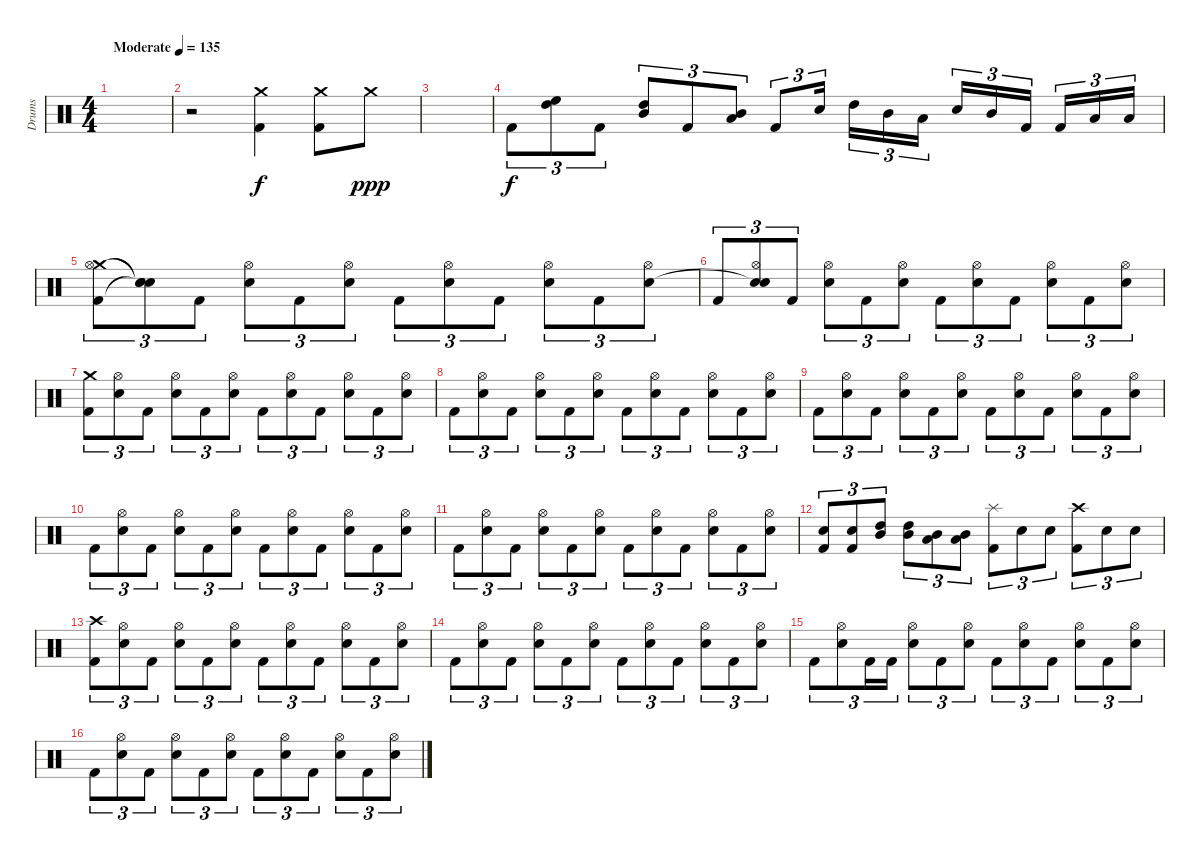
\track ("Drums" "Drums") {instrument percussion}
\staff {score}
\articulation defaults
\ts (4 4)
\tempo (135 "Moderate")
\clef neutral
\ks c
|
r.2 ("Crash medium (hit)" "Kick (hit) 2").4 ("Crash medium (hit)" "Kick (hit) 2").8 "Crash medium (hit)".8{dy ppp volume 0} |
|
"Kick (hit) 2".8{tu (3 2) dy f volume 15} ("High Floor Tom (hit)" "High Tom (hit)").8{tu (3 2)} "Kick (hit) 2".8{tu (3 2)} ("High Tom (hit)" "Mid Tom (hit)").8{tu (3 2)} "Kick (hit) 2".8{tu (3 2)} ("Mid Tom (hit)" "Low Tom (hit)").8{tu (3 2)} "Kick (hit) 2".8{tu (3 2)} "Snare (hit) 2".16{tu (3 2) beam splitsecondary} "High Tom (hit)".16{tu (3 2)} "Mid Tom (hit)".16{tu (3 2)} "Low Tom (hit)".16{tu (3 2)} "Snare (hit) 2".16{tu (3 2)} "Mid Tom (hit)".16{tu (3 2)} "Kick (hit) 2".16{tu (3 2) beam splitsecondary} "Kick (hit) 2".16{tu (3 2)} "Low Tom (hit)".16{tu (3 2)} "Low Tom (hit)".16{tu (3 2)} |
("Crash medium (hit)" "Hi-Hat (open)" "Kick (hit) 2").8{tu (3 2)} ("Snare (hit)"{t} "Snare (hit)"{t} "Snare (hit)"{t}).8{tu (3 2)} "Kick (hit) 2".8{tu (3 2)} ("Hi-Hat (open)" "Electric Snare (hit)").8{tu (3 2)} "Kick (hit) 2".8{tu (3 2)} ("Hi-Hat (open)" "Electric Snare (hit)").8{tu (3 2)} "Kick (hit) 2".8{tu (3 2)} ("Hi-Hat (open)" "Electric Snare (hit)").8{tu (3 2)} "Kick (hit) 2".8{tu (3 2)} ("Hi-Hat (open)" "Electric Snare (hit)").8{tu (3 2)} "Kick (hit) 2".8{tu (3 2)} ("Hi-Hat (open)" "Electric Snare (hit)").8{tu (3 2)} |
"Kick (hit) 2".8{tu (3 2)} ("Hi-Hat (open)" "Snare (hit)"{t} "Electric Snare (hit)").8{tu (3 2)} "Kick (hit) 2".8{tu (3 2)} ("Hi-Hat (open)" "Electric Snare (hit)").8{tu (3 2)} "Kick (hit) 2".8{tu (3 2)} ("Hi-Hat (open)" "Electric Snare (hit)").8{tu (3 2)} "Kick (hit) 2".8{tu (3 2)} ("Hi-Hat (open)" "Electric Snare (hit)").8{tu (3 2)} "Kick (hit) 2".8{tu (3 2)} ("Hi-Hat (open)" "Electric Snare (hit)").8{tu (3 2)} "Kick (hit) 2".8{tu (3 2)} ("Hi-Hat (open)" "Electric Snare (hit)").8{tu (3 2)} |
("Crash medium (hit)" "Kick (hit) 2").8{tu (3 2)} ("Hi-Hat (open)" "Electric Snare (hit)").8{tu (3 2)} "Kick (hit) 2".8{tu (3 2)} ("Hi-Hat (open)" "Electric Snare (hit)").8{tu (3 2)} "Kick (hit) 2".8{tu (3 2)} ("Hi-Hat (open)" "Electric Snare (hit)").8{tu (3 2)} "Kick (hit) 2".8{tu (3 2)} ("Hi-Hat (open)" "Electric Snare (hit)").8{tu (3 2)} "Kick (hit) 2".8{tu (3 2)} ("Hi-Hat (open)" "Electric Snare (hit)").8{tu (3 2)} "Kick (hit) 2".8{tu (3 2)} ("Hi-Hat (open)" "Electric Snare (hit)").8{tu (3 2)} |
"Kick (hit) 2".8{tu (3 2)} ("Hi-Hat (open)" "Electric Snare (hit)").8{tu (3 2)} "Kick (hit) 2".8{tu (3 2)} ("Hi-Hat (open)" "Electric Snare (hit)").8{tu (3 2)} "Kick (hit) 2".8{tu (3 2)} ("Hi-Hat (open)" "Electric Snare (hit)").8{tu (3 2)} "Kick (hit) 2".8{tu (3 2)} ("Hi-Hat (open)" "Electric Snare (hit)").8{tu (3 2)} "Kick (hit) 2".8{tu (3 2)} ("Hi-Hat (open)" "Electric Snare (hit)").8{tu (3 2)} "Kick (hit) 2".8{tu (3 2)} ("Hi-Hat (open)" "Electric Snare (hit)").8{tu (3 2)} |
"Kick (hit) 2".8{tu (3 2)} ("Hi-Hat (open)" "Electric Snare (hit)").8{tu (3 2)} "Kick (hit) 2".8{tu (3 2)} ("Hi-Hat (open)" "Electric Snare (hit)").8{tu (3 2)} "Kick (hit) 2".8{tu (3 2)} ("Hi-Hat (open)" "Electric Snare (hit)").8{tu (3 2)} "Kick (hit) 2".8{tu (3 2)} ("Hi-Hat (open)" "Electric Snare (hit)").8{tu (3 2)} "Kick (hit) 2".8{tu (3 2)} ("Hi-Hat (open)" "Electric Snare (hit)").8{tu (3 2)} "Kick (hit) 2".8{tu (3 2)} ("Hi-Hat (open)" "Electric Snare (hit)").8{tu (3 2)} |
"Kick (hit) 2".8{tu (3 2)} ("Hi-Hat (open)" "Electric Snare (hit)").8{tu (3 2)} "Kick (hit) 2".8{tu (3 2)} ("Hi-Hat (open)" "Electric Snare (hit)").8{tu (3 2)} "Kick (hit) 2".8{tu (3 2)} ("Hi-Hat (open)" "Electric Snare (hit)").8{tu (3 2)} "Kick (hit) 2".8{tu (3 2)} ("Hi-Hat (open)" "Electric Snare (hit)").8{tu (3 2)} "Kick (hit) 2".8{tu (3 2)} ("Hi-Hat (open)" "Electric Snare (hit)").8{tu (3 2)} "Kick (hit) 2".8{tu (3 2)} ("Hi-Hat (open)" "Electric Snare (hit)").8{tu (3 2)} |
"Kick (hit) 2".8{tu (3 2)} ("Hi-Hat (open)" "Electric Snare (hit)").8{tu (3 2)} "Kick (hit) 2".8{tu (3 2)} ("Hi-Hat (open)" "Electric Snare (hit)").8{tu (3 2)} "Kick (hit) 2".8{tu (3 2)} ("Hi-Hat (open)" "Electric Snare (hit)").8{tu (3 2)} "Kick (hit) 2".8{tu (3 2)} ("Hi-Hat (open)" "Electric Snare (hit)").8{tu (3 2)} "Kick (hit) 2".8{tu (3 2)} ("Hi-Hat (open)" "Electric Snare (hit)").8{tu (3 2)} "Kick (hit) 2".8{tu (3 2)} ("Hi-Hat (open)" "Electric Snare (hit)").8{tu (3 2)} |
("Snare (hit) 2" "Kick (hit) 2").8{tu (3 2)} ("Snare (hit) 2" "Kick (hit) 2").8{tu (3 2)} ("Mid Tom (hit)" "High Tom (hit)").8{tu (3 2)} ("Mid Tom (hit)" "High Tom (hit)").8{tu (3 2)} ("Low Tom (hit)" "Mid Tom (hit)").8{tu (3 2)} ("Low Tom (hit)" "Mid Tom (hit)").8{tu (3 2)} ("Splash (hit)" "Kick (hit) 2").8{tu (3 2)} "Snare (hit) 2".8{tu (3 2)} "Snare (hit) 2".8{tu (3 2)} ("Crash high (hit)" "Kick (hit) 2").8{tu (3 2)} "Snare (hit) 2".8{tu (3 2)} "Snare (hit) 2".8{tu (3 2)} |
("Crash high (hit)" "Kick (hit) 2").8{tu (3 2)} ("Hi-Hat (open)" "Electric Snare (hit)").8{tu (3 2)} "Kick (hit) 2".8{tu (3 2)} ("Hi-Hat (open)" "Electric Snare (hit)").8{tu (3 2)} "Kick (hit) 2".8{tu (3 2)} ("Hi-Hat (open)" "Electric Snare (hit)").8{tu (3 2)} "Kick (hit) 2".8{tu (3 2)} ("Hi-Hat (open)" "Electric Snare (hit)").8{tu (3 2)} "Kick (hit) 2".8{tu (3 2)} ("Hi-Hat (open)" "Electric Snare (hit)").8{tu (3 2)} "Kick (hit) 2".8{tu (3 2)} ("Hi-Hat (open)" "Electric Snare (hit)").8{tu (3 2)} |
"Kick (hit) 2".8{tu (3 2)} ("Hi-Hat (open)" "Electric Snare (hit)").8{tu (3 2)} "Kick (hit) 2".8{tu (3 2)} ("Hi-Hat (open)" "Electric Snare (hit)").8{tu (3 2)} "Kick (hit) 2".8{tu (3 2)} ("Hi-Hat (open)" "Electric Snare (hit)").8{tu (3 2)} "Kick (hit) 2".8{tu (3 2)} ("Hi-Hat (open)" "Electric Snare (hit)").8{tu (3 2)} "Kick (hit) 2".8{tu (3 2)} ("Hi-Hat (open)" "Electric Snare (hit)").8{tu (3 2)} "Kick (hit) 2".8{tu (3 2)} ("Hi-Hat (open)" "Electric Snare (hit)").8{tu (3 2)} |
"Kick (hit) 2".8{tu (3 2)} ("Hi-Hat (open)" "Electric Snare (hit)").8{tu (3 2)} "Kick (hit) 2".16{tu (3 2)} "Kick (hit) 2".16{tu (3 2)} ("Hi-Hat (open)" "Electric Snare (hit)").8{tu (3 2)} "Kick (hit) 2".8{tu (3 2)} ("Hi-Hat (open)" "Electric Snare (hit)").8{tu (3 2)} "Kick (hit) 2".8{tu (3 2)} ("Hi-Hat (open)" "Electric Snare (hit)").8{tu (3 2)} "Kick (hit) 2".8{tu (3 2)} ("Hi-Hat (open)" "Electric Snare (hit)").8{tu (3 2)} "Kick (hit) 2".8{tu (3 2)} ("Hi-Hat (open)" "Electric Snare (hit)").8{tu (3 2)} |
"Kick (hit) 2".8{tu (3 2)} ("Hi-Hat (open)" "Electric Snare (hit)").8{tu (3 2)} "Kick (hit) 2".8{tu (3 2)} ("Hi-Hat (open)" "Electric Snare (hit)").8{tu (3 2)} "Kick (hit) 2".8{tu (3 2)} ("Hi-Hat (open)" "Electric Snare (hit)").8{tu (3 2)} "Kick (hit) 2".8{tu (3 2)} ("Hi-Hat (open)" "Electric Snare (hit)").8{tu (3 2)} "Kick (hit) 2".8{tu (3 2)} ("Hi-Hat (open)" "Electric Snare (hit)").8{tu (3 2)} "Kick (hit) 2".8{tu (3 2)} ("Hi-Hat (open)" "Electric Snare (hit)").8{tu (3 2)}
